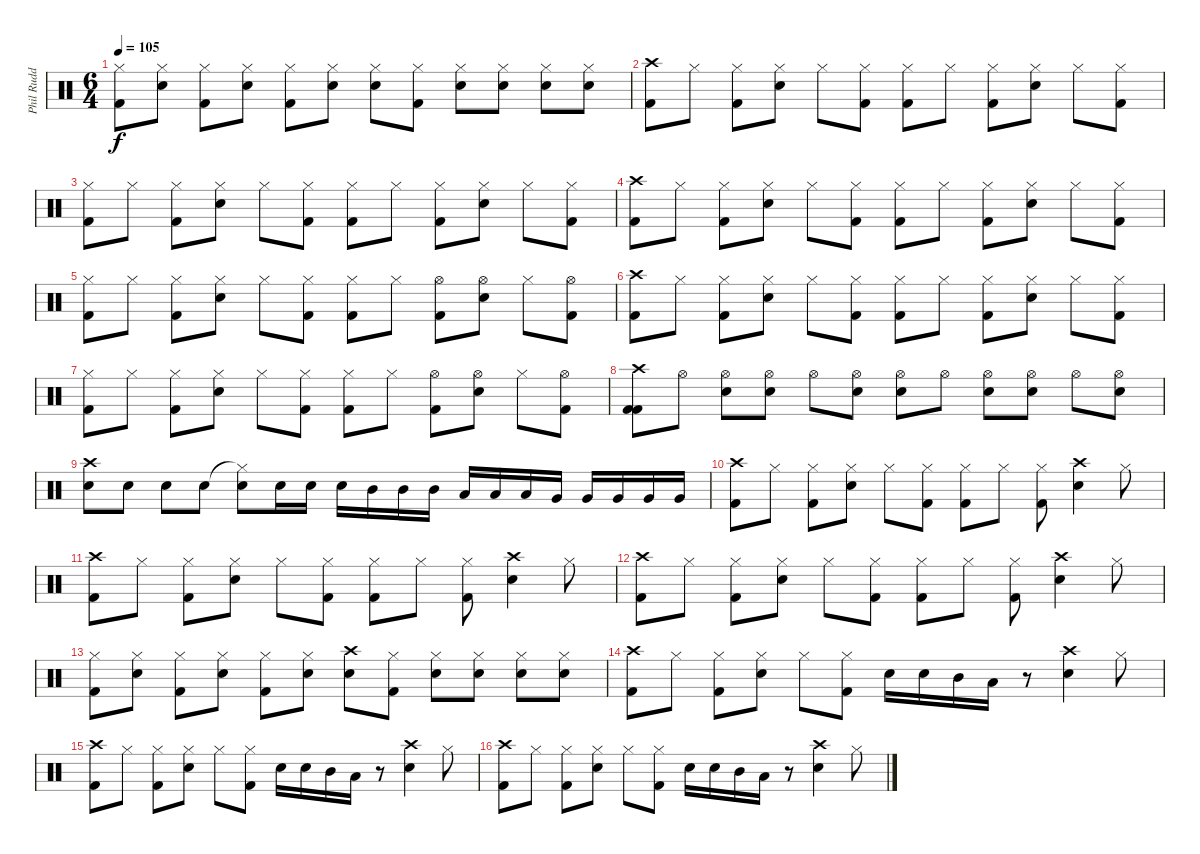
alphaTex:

\track ("Phil Rudd" "Phil Rudd") {instrument percussion}
\staff {score}
\articulation defaults
\ts (6 4)
\tempo 105
\clef neutral
\ks c
("Hi-Hat (closed)" "Kick (hit) 2").8{dy f} ("Hi-Hat (closed)" "Electric Snare (hit)").8 ("Hi-Hat (closed)" "Kick (hit) 2").8 ("Hi-Hat (closed)" "Electric Snare (hit)").8 ("Hi-Hat (closed)" "Kick (hit) 2").8 ("Hi-Hat (closed)" "Electric Snare (hit)").8 ("Hi-Hat (closed)" "Electric Snare (hit)").8 ("Hi-Hat (closed)" "Kick (hit) 2").8 ("Hi-Hat (closed)" "Electric Snare (hit)").8 ("Hi-Hat (closed)" "Electric Snare (hit)").8 ("Hi-Hat (closed)" "Electric Snare (hit)").8 ("Hi-Hat (closed)" "Electric Snare (hit)").8 |
("Crash high (hit)" "Kick (hit) 2").8 "Hi-Hat (closed)".8 ("Hi-Hat (closed)" "Kick (hit) 2").8 ("Hi-Hat (closed)" "Electric Snare (hit)").8 "Hi-Hat (closed)".8 ("Hi-Hat (closed)" "Kick (hit) 2").8 ("Hi-Hat (closed)" "Kick (hit) 2").8 "Hi-Hat (closed)".8 ("Hi-Hat (closed)" "Kick (hit) 2").8 ("Hi-Hat (closed)" "Electric Snare (hit)").8 "Hi-Hat (closed)".8 ("Hi-Hat (closed)" "Kick (hit) 2").8 |
("Hi-Hat (closed)" "Kick (hit) 2").8 "Hi-Hat (closed)".8 ("Hi-Hat (closed)" "Kick (hit) 2").8 ("Hi-Hat (closed)" "Electric Snare (hit)").8 "Hi-Hat (closed)".8 ("Hi-Hat (closed)" "Kick (hit) 2").8 ("Hi-Hat (closed)" "Kick (hit) 2").8 "Hi-Hat (closed)".8 ("Hi-Hat (closed)" "Kick (hit) 2").8 ("Hi-Hat (closed)" "Electric Snare (hit)").8 "Hi-Hat (closed)".8 ("Hi-Hat (closed)" "Kick (hit) 2").8 |
("Crash high (hit)" "Kick (hit) 2").8 "Hi-Hat (closed)".8 ("Hi-Hat (closed)" "Kick (hit) 2").8 ("Hi-Hat (closed)" "Electric Snare (hit)").8 "Hi-Hat (closed)".8 ("Hi-Hat (closed)" "Kick (hit) 2").8 ("Hi-Hat (closed)" "Kick (hit) 2").8 "Hi-Hat (closed)".8 ("Hi-Hat (closed)" "Kick (hit) 2").8 ("Hi-Hat (closed)" "Electric Snare (hit)").8 "Hi-Hat (closed)".8 ("Hi-Hat (closed)" "Kick (hit) 2").8 |
("Hi-Hat (closed)" "Kick (hit) 2").8 "Hi-Hat (closed)".8 ("Hi-Hat (closed)" "Kick (hit) 2").8 ("Hi-Hat (closed)" "Electric Snare (hit)").8 "Hi-Hat (closed)".8 ("Hi-Hat (closed)" "Kick (hit) 2").8 ("Hi-Hat (closed)" "Kick (hit) 2").8 "Hi-Hat (closed)".8 ("Hi-Hat (open)" "Kick (hit) 2").8 ("Hi-Hat (open)" "Electric Snare (hit)").8 "Hi-Hat (closed)".8 ("Hi-Hat (open)" "Kick (hit) 2").8 |
("Crash high (hit)" "Kick (hit) 2").8 "Hi-Hat (closed)".8 ("Hi-Hat (closed)" "Kick (hit) 2").8 ("Hi-Hat (closed)" "Electric Snare (hit)").8 "Hi-Hat (closed)".8 ("Hi-Hat (closed)" "Kick (hit) 2").8 ("Hi-Hat (closed)" "Kick (hit) 2").8 "Hi-Hat (closed)".8 ("Hi-Hat (closed)" "Kick (hit) 2").8 ("Hi-Hat (closed)" "Electric Snare (hit)").8 "Hi-Hat (closed)".8 ("Hi-Hat (closed)" "Kick (hit) 2").8 |
("Hi-Hat (closed)" "Kick (hit) 2").8 "Hi-Hat (closed)".8 ("Hi-Hat (closed)" "Kick (hit) 2").8 ("Hi-Hat (closed)" "Electric Snare (hit)").8 "Hi-Hat (closed)".8 ("Hi-Hat (closed)" "Kick (hit) 2").8 ("Hi-Hat (closed)" "Kick (hit) 2").8 "Hi-Hat (closed)".8 ("Hi-Hat (open)" "Kick (hit) 2").8 ("Hi-Hat (open)" "Electric Snare (hit)").8 "Hi-Hat (closed)".8 ("Hi-Hat (open)" "Kick (hit) 2").8 |
("Crash high (hit)" "Kick (hit) 2" "Kick (hit) 2").8 "Hi-Hat (open)".8 ("Hi-Hat (open)" "Electric Snare (hit)").8 ("Hi-Hat (open)" "Electric Snare (hit)").8 "Hi-Hat (open)".8 ("Hi-Hat (open)" "Electric Snare (hit)").8 ("Hi-Hat (open)" "Electric Snare (hit)").8 "Hi-Hat (open)".8 ("Hi-Hat (open)" "Electric Snare (hit)").8 ("Hi-Hat (open)" "Electric Snare (hit)").8 "Hi-Hat (open)".8 ("Hi-Hat (open)" "Electric Snare (hit)").8 |
("Crash high (hit)" "Electric Snare (hit)").8 "Electric Snare (hit)".8 "Electric Snare (hit)".8 "Electric Snare (hit)".8 ("Hi-Hat (closed)"{t} "Electric Snare (hit)").8 "Electric Snare (hit)".16 "Electric Snare (hit)".16 "Electric Snare (hit)".16 "Mid Tom (hit)".16 "Mid Tom (hit)".16 "Mid Tom (hit)".16 "Low Tom (hit)".16 "Low Tom (hit)".16 "Low Tom (hit)".16 "Very Low Tom (hit)".16 "Very Low Tom (hit)".16 "Very Low Tom (hit)".16 "Very Low Tom (hit)".16 "Very Low Tom (hit)".16 |
("Crash high (hit)" "Kick (hit) 2").8 "Hi-Hat (closed)".8 ("Hi-Hat (closed)" "Kick (hit) 2").8 ("Hi-Hat (closed)" "Electric Snare (hit)").8 "Hi-Hat (closed)".8 ("Hi-Hat (closed)" "Kick (hit) 2").8 ("Hi-Hat (closed)" "Kick (hit) 2").8 "Hi-Hat (closed)".8 ("Hi-Hat (closed)" "Kick (hit) 2").8 ("Crash high (hit)" "Electric Snare (hit)").4 "Hi-Hat (closed)".8 |
("Crash high (hit)" "Kick (hit) 2").8 "Hi-Hat (closed)".8 ("Hi-Hat (closed)" "Kick (hit) 2").8 ("Hi-Hat (closed)" "Electric Snare (hit)").8 "Hi-Hat (closed)".8 ("Hi-Hat (closed)" "Kick (hit) 2").8 ("Hi-Hat (closed)" "Kick (hit) 2").8 "Hi-Hat (closed)".8 ("Hi-Hat (closed)" "Kick (hit) 2").8 ("Crash high (hit)" "Electric Snare (hit)").4 "Hi-Hat (closed)".8 |
("Crash high (hit)" "Kick (hit) 2").8 "Hi-Hat (closed)".8 ("Hi-Hat (closed)" "Kick (hit) 2").8 ("Hi-Hat (closed)" "Electric Snare (hit)").8 "Hi-Hat (closed)".8 ("Hi-Hat (closed)" "Kick (hit) 2").8 ("Hi-Hat (closed)" "Kick (hit) 2").8 "Hi-Hat (closed)".8 ("Hi-Hat (closed)" "Kick (hit) 2").8 ("Crash high (hit)" "Electric Snare (hit)").4 "Hi-Hat (closed)".8 |
("Hi-Hat (closed)" "Kick (hit) 2").8 ("Hi-Hat (closed)" "Electric Snare (hit)").8 ("Hi-Hat (closed)" "Kick (hit) 2").8 ("Hi-Hat (closed)" "Electric Snare (hit)").8 ("Hi-Hat (closed)" "Kick (hit) 2").8 ("Hi-Hat (closed)" "Electric Snare (hit)").8 ("Crash high (hit)" "Electric Snare (hit)").8 ("Hi-Hat (closed)" "Kick (hit) 2").8 ("Hi-Hat (closed)" "Electric Snare (hit)").8 ("Hi-Hat (closed)" "Electric Snare (hit)").8 ("Hi-Hat (closed)" "Electric Snare (hit)").8 ("Hi-Hat (closed)" "Electric Snare (hit)").8 |
("Crash high (hit)" "Kick (hit) 2").8 "Hi-Hat (closed)".8 ("Hi-Hat (closed)" "Kick (hit) 2").8 ("Hi-Hat (closed)" "Electric Snare (hit)").8 "Hi-Hat (closed)".8 ("Hi-Hat (closed)" "Kick (hit) 2").8 "Electric Snare (hit)".16 "Electric Snare (hit)".16 "Mid Tom (hit)".16 "Low Tom (hit)".16 r.8 ("Crash high (hit)" "Electric Snare (hit)").4 "Hi-Hat (closed)".8 |
("Crash high (hit)" "Kick (hit) 2").8 "Hi-Hat (closed)".8 ("Hi-Hat (closed)" "Kick (hit) 2").8 ("Hi-Hat (closed)" "Electric Snare (hit)").8 "Hi-Hat (closed)".8 ("Hi-Hat (closed)" "Kick (hit) 2").8 "Electric Snare (hit)".16 "Electric Snare (hit)".16 "Mid Tom (hit)".16 "Low Tom (hit)".16 r.8 ("Crash high (hit)" "Electric Snare (hit)").4 "Hi-Hat (closed)".8 |
("Crash high (hit)" "Kick (hit) 2").8 "Hi-Hat (closed)".8 ("Hi-Hat (closed)" "Kick (hit) 2").8 ("Hi-Hat (closed)" "Electric Snare (hit)").8 "Hi-Hat (closed)".8 ("Hi-Hat (closed)" "Kick (hit) 2").8 "Electric Snare (hit)".16 "Electric Snare (hit)".16 "Mid Tom (hit)".16 "Low Tom (hit)".16 r.8 ("Crash high (hit)" "Electric Snare (hit)").4 "Hi-Hat (closed)".8
